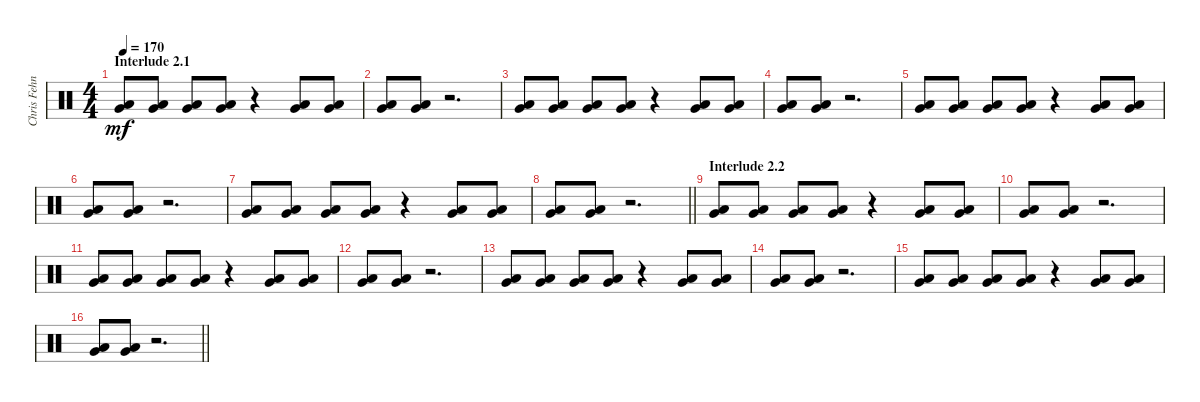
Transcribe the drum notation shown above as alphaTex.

\track ("Chris Fehn" "Chris Fehn") {instrument percussion}
\staff {score}
\articulation defaults
\ts (4 4)
\section ("" "Interlude 2.1")
\tempo 170
\clef neutral
\ks c
("Very Low Tom (hit)" "Low Floor Tom (hit)").8{dy mf} ("Very Low Tom (hit)" "Low Floor Tom (hit)").8 ("Very Low Tom (hit)" "Low Floor Tom (hit)").8 ("Very Low Tom (hit)" "Low Floor Tom (hit)").8 r.4 ("Very Low Tom (hit)" "Low Floor Tom (hit)").8 ("Very Low Tom (hit)" "Low Floor Tom (hit)").8 |
("Very Low Tom (hit)" "Low Floor Tom (hit)").8 ("Very Low Tom (hit)" "Low Floor Tom (hit)").8 r.2{d} |
("Very Low Tom (hit)" "Low Floor Tom (hit)").8 ("Very Low Tom (hit)" "Low Floor Tom (hit)").8 ("Very Low Tom (hit)" "Low Floor Tom (hit)").8 ("Very Low Tom (hit)" "Low Floor Tom (hit)").8 r.4 ("Very Low Tom (hit)" "Low Floor Tom (hit)").8 ("Very Low Tom (hit)" "Low Floor Tom (hit)").8 |
("Very Low Tom (hit)" "Low Floor Tom (hit)").8 ("Very Low Tom (hit)" "Low Floor Tom (hit)").8 r.2{d} |
("Very Low Tom (hit)" "Low Floor Tom (hit)").8 ("Very Low Tom (hit)" "Low Floor Tom (hit)").8 ("Very Low Tom (hit)" "Low Floor Tom (hit)").8 ("Very Low Tom (hit)" "Low Floor Tom (hit)").8 r.4 ("Very Low Tom (hit)" "Low Floor Tom (hit)").8 ("Very Low Tom (hit)" "Low Floor Tom (hit)").8 |
("Very Low Tom (hit)" "Low Floor Tom (hit)").8 ("Very Low Tom (hit)" "Low Floor Tom (hit)").8 r.2{d} |
("Very Low Tom (hit)" "Low Floor Tom (hit)").8 ("Very Low Tom (hit)" "Low Floor Tom (hit)").8 ("Very Low Tom (hit)" "Low Floor Tom (hit)").8 ("Very Low Tom (hit)" "Low Floor Tom (hit)").8 r.4 ("Very Low Tom (hit)" "Low Floor Tom (hit)").8 ("Very Low Tom (hit)" "Low Floor Tom (hit)").8 |
\barLineRight lightlight
("Very Low Tom (hit)" "Low Floor Tom (hit)").8 ("Very Low Tom (hit)" "Low Floor Tom (hit)").8 r.2{d} |
\section ("" "Interlude 2.2")
("Very Low Tom (hit)" "Low Floor Tom (hit)").8 ("Very Low Tom (hit)" "Low Floor Tom (hit)").8 ("Very Low Tom (hit)" "Low Floor Tom (hit)").8 ("Very Low Tom (hit)" "Low Floor Tom (hit)").8 r.4 ("Very Low Tom (hit)" "Low Floor Tom (hit)").8 ("Very Low Tom (hit)" "Low Floor Tom (hit)").8 |
("Very Low Tom (hit)" "Low Floor Tom (hit)").8 ("Very Low Tom (hit)" "Low Floor Tom (hit)").8 r.2{d} |
("Very Low Tom (hit)" "Low Floor Tom (hit)").8 ("Very Low Tom (hit)" "Low Floor Tom (hit)").8 ("Very Low Tom (hit)" "Low Floor Tom (hit)").8 ("Very Low Tom (hit)" "Low Floor Tom (hit)").8 r.4 ("Very Low Tom (hit)" "Low Floor Tom (hit)").8 ("Very Low Tom (hit)" "Low Floor Tom (hit)").8 |
("Very Low Tom (hit)" "Low Floor Tom (hit)").8 ("Very Low Tom (hit)" "Low Floor Tom (hit)").8 r.2{d} |
("Very Low Tom (hit)" "Low Floor Tom (hit)").8 ("Very Low Tom (hit)" "Low Floor Tom (hit)").8 ("Very Low Tom (hit)" "Low Floor Tom (hit)").8 ("Very Low Tom (hit)" "Low Floor Tom (hit)").8 r.4 ("Very Low Tom (hit)" "Low Floor Tom (hit)").8 ("Very Low Tom (hit)" "Low Floor Tom (hit)").8 |
("Very Low Tom (hit)" "Low Floor Tom (hit)").8 ("Very Low Tom (hit)" "Low Floor Tom (hit)").8 r.2{d} |
("Very Low Tom (hit)" "Low Floor Tom (hit)").8 ("Very Low Tom (hit)" "Low Floor Tom (hit)").8 ("Very Low Tom (hit)" "Low Floor Tom (hit)").8 ("Very Low Tom (hit)" "Low Floor Tom (hit)").8 r.4 ("Very Low Tom (hit)" "Low Floor Tom (hit)").8 ("Very Low Tom (hit)" "Low Floor Tom (hit)").8 |
\barLineRight lightlight
("Very Low Tom (hit)" "Low Floor Tom (hit)").8 ("Very Low Tom (hit)" "Low Floor Tom (hit)").8 r.2{d}
